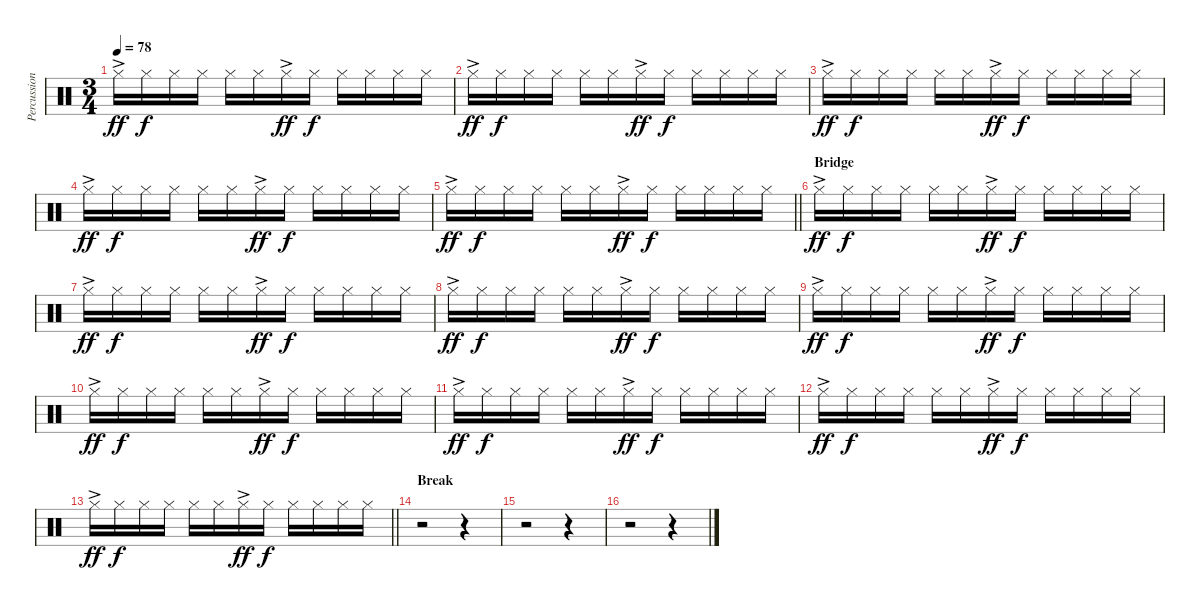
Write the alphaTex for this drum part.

\track ("Percussion" "Percussion") {instrument percussion}
\staff {score}
\articulation defaults
\ts (3 4)
\tempo 78
\clef neutral
\ks c "Hi-Hat (closed)"{ac}.16{dy ff} "Hi-Hat (closed)".16{dy f} "Hi-Hat (closed)".16 "Hi-Hat (closed)".16 "Hi-Hat (closed)".16 "Hi-Hat (closed)".16 "Hi-Hat (closed)"{ac}.16{dy ff} "Hi-Hat (closed)".16{dy f} "Hi-Hat (closed)".16 "Hi-Hat (closed)".16 "Hi-Hat (closed)".16 "Hi-Hat (closed)".16
|
"Hi-Hat (closed)"{ac}.16{dy ff} "Hi-Hat (closed)".16{dy f} "Hi-Hat (closed)".16 "Hi-Hat (closed)".16 "Hi-Hat (closed)".16 "Hi-Hat (closed)".16 "Hi-Hat (closed)"{ac}.16{dy ff} "Hi-Hat (closed)".16{dy f} "Hi-Hat (closed)".16 "Hi-Hat (closed)".16 "Hi-Hat (closed)".16 "Hi-Hat (closed)".16 |
"Hi-Hat (closed)"{ac}.16{dy ff} "Hi-Hat (closed)".16{dy f} "Hi-Hat (closed)".16 "Hi-Hat (closed)".16 "Hi-Hat (closed)".16 "Hi-Hat (closed)".16 "Hi-Hat (closed)"{ac}.16{dy ff} "Hi-Hat (closed)".16{dy f} "Hi-Hat (closed)".16 "Hi-Hat (closed)".16 "Hi-Hat (closed)".16 "Hi-Hat (closed)".16 |
"Hi-Hat (closed)"{ac}.16{dy ff} "Hi-Hat (closed)".16{dy f} "Hi-Hat (closed)".16 "Hi-Hat (closed)".16 "Hi-Hat (closed)".16 "Hi-Hat (closed)".16 "Hi-Hat (closed)"{ac}.16{dy ff} "Hi-Hat (closed)".16{dy f} "Hi-Hat (closed)".16 "Hi-Hat (closed)".16 "Hi-Hat (closed)".16 "Hi-Hat (closed)".16 |
\barLineRight lightlight "Hi-Hat (closed)"{ac}.16{dy ff} "Hi-Hat (closed)".16{dy f} "Hi-Hat (closed)".16 "Hi-Hat (closed)".16 "Hi-Hat (closed)".16 "Hi-Hat (closed)".16 "Hi-Hat (closed)"{ac}.16{dy ff} "Hi-Hat (closed)".16{dy f} "Hi-Hat (closed)".16 "Hi-Hat (closed)".16 "Hi-Hat (closed)".16 "Hi-Hat (closed)".16
|
\section ("" "Bridge")
"Hi-Hat (closed)"{ac}.16{dy ff} "Hi-Hat (closed)".16{dy f} "Hi-Hat (closed)".16 "Hi-Hat (closed)".16 "Hi-Hat (closed)".16 "Hi-Hat (closed)".16 "Hi-Hat (closed)"{ac}.16{dy ff} "Hi-Hat (closed)".16{dy f} "Hi-Hat (closed)".16 "Hi-Hat (closed)".16 "Hi-Hat (closed)".16 "Hi-Hat (closed)".16 |
"Hi-Hat (closed)"{ac}.16{dy ff} "Hi-Hat (closed)".16{dy f} "Hi-Hat (closed)".16 "Hi-Hat (closed)".16 "Hi-Hat (closed)".16 "Hi-Hat (closed)".16 "Hi-Hat (closed)"{ac}.16{dy ff} "Hi-Hat (closed)".16{dy f} "Hi-Hat (closed)".16 "Hi-Hat (closed)".16 "Hi-Hat (closed)".16 "Hi-Hat (closed)".16 |
"Hi-Hat (closed)"{ac}.16{dy ff} "Hi-Hat (closed)".16{dy f} "Hi-Hat (closed)".16 "Hi-Hat (closed)".16 "Hi-Hat (closed)".16 "Hi-Hat (closed)".16 "Hi-Hat (closed)"{ac}.16{dy ff} "Hi-Hat (closed)".16{dy f} "Hi-Hat (closed)".16 "Hi-Hat (closed)".16 "Hi-Hat (closed)".16 "Hi-Hat (closed)".16 |
"Hi-Hat (closed)"{ac}.16{dy ff} "Hi-Hat (closed)".16{dy f} "Hi-Hat (closed)".16 "Hi-Hat (closed)".16 "Hi-Hat (closed)".16 "Hi-Hat (closed)".16 "Hi-Hat (closed)"{ac}.16{dy ff} "Hi-Hat (closed)".16{dy f} "Hi-Hat (closed)".16 "Hi-Hat (closed)".16 "Hi-Hat (closed)".16 "Hi-Hat (closed)".16 |
"Hi-Hat (closed)"{ac}.16{dy ff} "Hi-Hat (closed)".16{dy f} "Hi-Hat (closed)".16 "Hi-Hat (closed)".16 "Hi-Hat (closed)".16 "Hi-Hat (closed)".16 "Hi-Hat (closed)"{ac}.16{dy ff} "Hi-Hat (closed)".16{dy f} "Hi-Hat (closed)".16 "Hi-Hat (closed)".16 "Hi-Hat (closed)".16 "Hi-Hat (closed)".16 |
"Hi-Hat (closed)"{ac}.16{dy ff} "Hi-Hat (closed)".16{dy f} "Hi-Hat (closed)".16 "Hi-Hat (closed)".16 "Hi-Hat (closed)".16 "Hi-Hat (closed)".16 "Hi-Hat (closed)"{ac}.16{dy ff} "Hi-Hat (closed)".16{dy f} "Hi-Hat (closed)".16 "Hi-Hat (closed)".16 "Hi-Hat (closed)".16 "Hi-Hat (closed)".16 |
"Hi-Hat (closed)"{ac}.16{dy ff} "Hi-Hat (closed)".16{dy f} "Hi-Hat (closed)".16 "Hi-Hat (closed)".16 "Hi-Hat (closed)".16 "Hi-Hat (closed)".16 "Hi-Hat (closed)"{ac}.16{dy ff} "Hi-Hat (closed)".16{dy f} "Hi-Hat (closed)".16 "Hi-Hat (closed)".16 "Hi-Hat (closed)".16 "Hi-Hat (closed)".16 |
\barLineRight lightlight "Hi-Hat (closed)"{ac}.16{dy ff} "Hi-Hat (closed)".16{dy f} "Hi-Hat (closed)".16 "Hi-Hat (closed)".16 "Hi-Hat (closed)".16 "Hi-Hat (closed)".16 "Hi-Hat (closed)"{ac}.16{dy ff} "Hi-Hat (closed)".16{dy f} "Hi-Hat (closed)".16 "Hi-Hat (closed)".16 "Hi-Hat (closed)".16 "Hi-Hat (closed)".16
|
\section ("" "Break")
r.2 r.4 |
r.2 r.4 |
r.2 r.4
